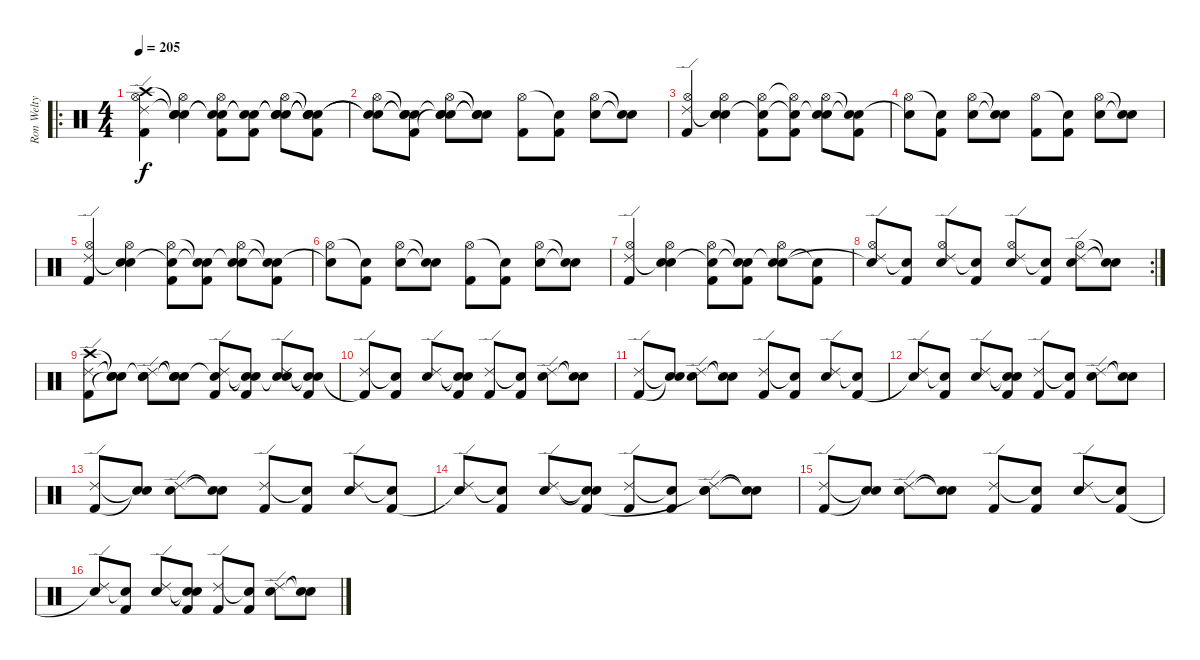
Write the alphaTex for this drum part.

\track ("Ron Welty" "Ron Welty") {instrument percussion}
\staff {score}
\articulation defaults
\ro
\ts (4 4)
\tempo 205
\clef neutral
\ks c
("Crash high (hit)" "Ride (edge) 2" "Hi-Hat (open)" "Kick (hit) 2").4{dy f} ("Snare (hit)"{t} "Snare (hit)"{t} "Hi-Hat (open)" "Electric Snare (hit)").4 ("Snare (hit)"{t} "Snare (hit)"{t} "Hi-Hat (open)" "Kick (hit) 2").8 ("Snare (hit)"{t} "Snare (hit)"{t} "Kick (hit) 2").8 ("Snare (hit)"{t} "Snare (hit)"{t} "Hi-Hat (open)" "Electric Snare (hit)").8 ("Snare (hit)"{t} "Snare (hit)"{t} "Snare (hit)"{t} "Snare (hit)"{t} "Kick (hit) 2").8 |
("Snare (hit)"{t} "Hi-Hat (open)" "Snare (hit)"{t}).8 ("Snare (hit)"{t} "Snare (hit)"{t} "Snare (hit)"{t} "Kick (hit) 2").8 ("Snare (hit)"{t} "Hi-Hat (open)" "Electric Snare (hit)" "Snare (hit)"{t}).8 ("Snare (hit)"{t} "Snare (hit)"{t} "Snare (hit)"{t}).8 ("Hi-Hat (open)" "Kick (hit) 2").8 ("Snare (hit)"{t} "Kick (hit) 2").8 ("Hi-Hat (open)" "Electric Snare (hit)").8 ("Snare (hit)"{t} "Snare (hit)"{t}).8 |
("Ride (edge) 2" "Hi-Hat (open)" "Kick (hit) 2").4 ("Snare (hit)"{t} "Hi-Hat (open)" "Electric Snare (hit)").4 ("Snare (hit)"{t} "Hi-Hat (open)" "Kick (hit) 2").8 ("Snare (hit)"{t} "Hi-Hat (open)"{t} "Kick (hit) 2").8 ("Snare (hit)"{t} "Hi-Hat (open)" "Electric Snare (hit)").8 ("Snare (hit)"{t} "Snare (hit)"{t} "Kick (hit) 2").8 |
("Hi-Hat (open)" "Snare (hit)"{t}).8 ("Snare (hit)"{t} "Kick (hit) 2").8 ("Hi-Hat (open)" "Electric Snare (hit)").8 ("Snare (hit)"{t} "Snare (hit)"{t}).8 ("Hi-Hat (open)" "Kick (hit) 2").8 ("Snare (hit)"{t} "Kick (hit) 2").8 ("Hi-Hat (open)" "Electric Snare (hit)").8 ("Snare (hit)"{t} "Snare (hit)"{t}).8 |
("Ride (edge) 2" "Hi-Hat (open)" "Kick (hit) 2").4 ("Snare (hit)"{t} "Hi-Hat (open)" "Electric Snare (hit)").4 ("Snare (hit)"{t} "Hi-Hat (open)" "Kick (hit) 2").8 ("Snare (hit)"{t} "Snare (hit)"{t} "Kick (hit) 2").8 ("Snare (hit)"{t} "Hi-Hat (open)" "Electric Snare (hit)").8 ("Snare (hit)"{t} "Snare (hit)"{t} "Kick (hit) 2").8 |
("Hi-Hat (open)" "Snare (hit)"{t}).8 ("Snare (hit)"{t} "Kick (hit) 2").8 ("Hi-Hat (open)" "Electric Snare (hit)").8 ("Snare (hit)"{t} "Snare (hit)"{t}).8 ("Hi-Hat (open)" "Kick (hit) 2").8 ("Snare (hit)"{t} "Kick (hit) 2").8 ("Hi-Hat (open)" "Electric Snare (hit)").8 ("Snare (hit)"{t} "Snare (hit)"{t}).8 |
("Ride (edge) 2" "Hi-Hat (open)" "Kick (hit) 2").4 ("Snare (hit)"{t} "Hi-Hat (open)" "Electric Snare (hit)").4 ("Snare (hit)"{t} "Hi-Hat (open)" "Kick (hit) 2").8 ("Snare (hit)"{t} "Snare (hit)"{t} "Kick (hit) 2").8 ("Snare (hit)"{t} "Hi-Hat (open)" "Electric Snare (hit)").8 ("Snare (hit)"{t} "Kick (hit) 2").8 |
\rc 2
("Ride (edge) 2" "Hi-Hat (open)" "Snare (hit)"{t}).8 ("Snare (hit)"{t} "Kick (hit) 2").8 ("Ride (edge) 2" "Hi-Hat (open)" "Electric Snare (hit)").8 ("Snare (hit)"{t} "Kick (hit) 2").8 ("Ride (edge) 2" "Hi-Hat (open)" "Electric Snare (hit)").8 ("Snare (hit)"{t} "Kick (hit) 2").8 ("Ride (edge) 2" "Hi-Hat (open)" "Electric Snare (hit)").8 ("Snare (hit)"{t} "Snare (hit)"{t}).8 |
("Crash high (hit)" "Ride (edge) 2" "Kick (hit) 2").8 ("Snare (hit)"{t} "Snare (hit)"{t} "Snare (hit)"{t}).8 ("Snare (hit)"{t} "Ride (edge) 2" "Electric Snare (hit)").8 ("Snare (hit)"{t} "Snare (hit)"{t} "Snare (hit)"{t}).8 ("Snare (hit)"{t} "Ride (edge) 2" "Kick (hit) 2").8 ("Snare (hit)"{t} "Snare (hit)"{t} "Kick (hit) 2").8 ("Snare (hit)"{t} "Ride (edge) 2" "Electric Snare (hit)").8 ("Snare (hit)"{t} "Snare (hit)"{t} "Kick (hit) 2").8 |
("Ride (edge) 2" "Kick (hit) 2"{t}).8 ("Snare (hit)"{t} "Kick (hit) 2").8 ("Ride (edge) 2" "Electric Snare (hit)").8 ("Snare (hit)"{t} "Snare (hit)"{t} "Kick (hit) 2").8 ("Ride (edge) 2" "Kick (hit) 2").8 ("Snare (hit)"{t} "Kick (hit) 2").8 ("Ride (edge) 2" "Electric Snare (hit)").8 ("Snare (hit)"{t} "Snare (hit)"{t}).8 |
("Ride (edge) 2" "Kick (hit) 2").8 ("Snare (hit)"{t} "Snare (hit)"{t}).8 ("Ride (edge) 2" "Electric Snare (hit)").8 ("Snare (hit)"{t} "Snare (hit)"{t}).8 ("Ride (edge) 2" "Kick (hit) 2").8 ("Snare (hit)"{t} "Kick (hit) 2").8 ("Ride (edge) 2" "Electric Snare (hit)").8 ("Snare (hit)"{t} "Kick (hit) 2").8 |
("Ride (edge) 2" "Snare (hit)"{t}).8 ("Snare (hit)"{t} "Kick (hit) 2").8 ("Ride (edge) 2" "Electric Snare (hit)").8 ("Snare (hit)"{t} "Snare (hit)"{t} "Kick (hit) 2").8 ("Ride (edge) 2" "Kick (hit) 2").8 ("Snare (hit)"{t} "Kick (hit) 2").8 ("Ride (edge) 2" "Electric Snare (hit)").8 ("Snare (hit)"{t} "Snare (hit)"{t}).8 |
("Ride (edge) 2" "Kick (hit) 2").8 ("Snare (hit)"{t} "Snare (hit)"{t}).8 ("Ride (edge) 2" "Electric Snare (hit)").8 ("Snare (hit)"{t} "Snare (hit)"{t}).8 ("Ride (edge) 2" "Kick (hit) 2").8 ("Snare (hit)"{t} "Kick (hit) 2").8 ("Ride (edge) 2" "Electric Snare (hit)").8 ("Snare (hit)"{t} "Kick (hit) 2").8 |
("Ride (edge) 2" "Snare (hit)"{t}).8 ("Snare (hit)"{t} "Kick (hit) 2").8 ("Ride (edge) 2" "Electric Snare (hit)").8 ("Snare (hit)"{t} "Snare (hit)"{t} "Kick (hit) 2").8 ("Ride (edge) 2" "Kick (hit) 2").8 ("Snare (hit)"{t} "Kick (hit) 2").8 ("Ride (edge) 2" "Electric Snare (hit)" "Snare (hit)"{t}).8 ("Snare (hit)"{t} "Snare (hit)"{t}).8 |
("Ride (edge) 2" "Kick (hit) 2").8 ("Snare (hit)"{t} "Snare (hit)"{t}).8 ("Ride (edge) 2" "Electric Snare (hit)").8 ("Snare (hit)"{t} "Snare (hit)"{t}).8 ("Ride (edge) 2" "Kick (hit) 2").8 ("Snare (hit)"{t} "Kick (hit) 2").8 ("Ride (edge) 2" "Electric Snare (hit)").8 ("Snare (hit)"{t} "Kick (hit) 2").8 |
("Ride (edge) 2" "Snare (hit)"{t}).8 ("Snare (hit)"{t} "Kick (hit) 2").8 ("Ride (edge) 2" "Electric Snare (hit)").8 ("Snare (hit)"{t} "Snare (hit)"{t} "Kick (hit) 2").8 ("Ride (edge) 2" "Kick (hit) 2").8 ("Snare (hit)"{t} "Kick (hit) 2").8 ("Ride (edge) 2" "Electric Snare (hit)").8 ("Snare (hit)"{t} "Snare (hit)"{t}).8
